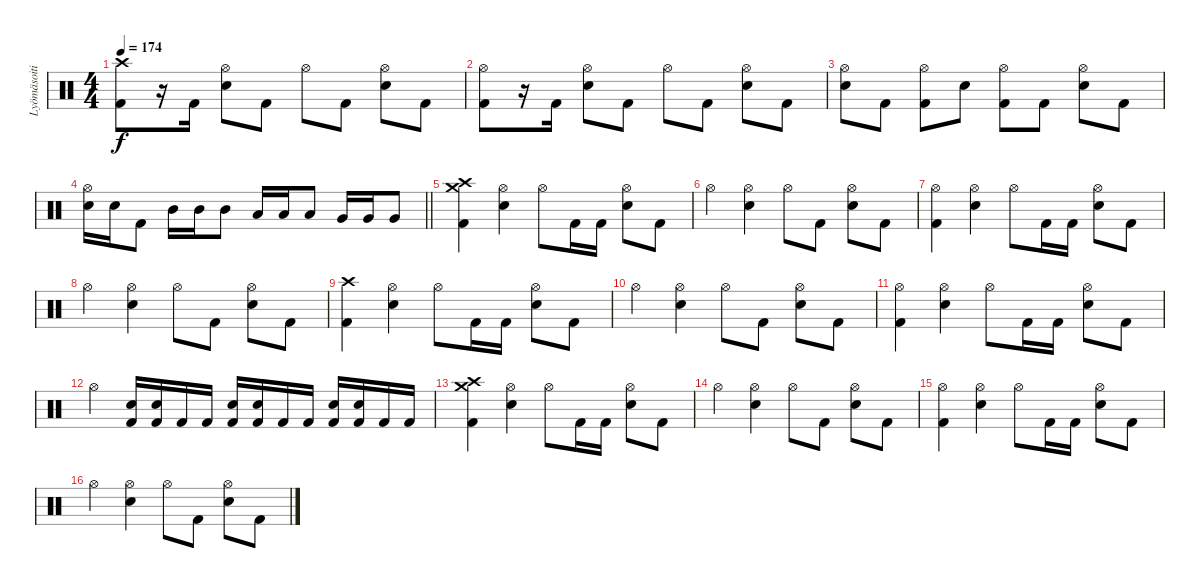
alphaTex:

\track ("Lyömäsoitin" "Lyömäsoiti") {instrument percussion}
\staff {score}
\articulation defaults
\ts (4 4)
\tempo 174
\clef neutral
\ks c
("Crash high (hit)" "Kick (hit) 2").8{dy f} r.16 "Kick (hit) 2".16 ("Hi-Hat (open)" "Electric Snare (hit)").8 "Kick (hit) 2".8 "Hi-Hat (open)".8 "Kick (hit) 2".8 ("Hi-Hat (open)" "Electric Snare (hit)").8 "Kick (hit) 2".8 |
("Hi-Hat (open)" "Kick (hit) 2").8 r.16 "Kick (hit) 2".16 ("Hi-Hat (open)" "Electric Snare (hit)").8 "Kick (hit) 2".8 "Hi-Hat (open)".8 "Kick (hit) 2".8 ("Hi-Hat (open)" "Electric Snare (hit)").8 "Kick (hit) 2".8 |
("Hi-Hat (open)" "Electric Snare (hit)").8 "Kick (hit) 2".8 ("Hi-Hat (open)" "Kick (hit) 2").8 "Electric Snare (hit)".8 ("Hi-Hat (open)" "Kick (hit) 2").8 "Kick (hit) 2".8 ("Hi-Hat (open)" "Electric Snare (hit)").8 "Kick (hit) 2".8 |
\barLineRight lightlight
("Hi-Hat (open)" "Electric Snare (hit)").16 "Electric Snare (hit)".16 "Kick (hit) 2".8 "Mid Tom (hit)".16 "Mid Tom (hit)".16 "Mid Tom (hit)".8 "Low Tom (hit)".16 "Low Tom (hit)".16 "Low Tom (hit)".8 "Very Low Tom (hit)".16 "Very Low Tom (hit)".16 "Very Low Tom (hit)".8 |
\section ("" "")
("Crash medium (hit)" "Crash high (hit)" "Kick (hit) 2").4 ("Hi-Hat (open)" "Electric Snare (hit)").4 "Hi-Hat (open)".8 "Kick (hit) 2".16 "Kick (hit) 2".16 ("Hi-Hat (open)" "Electric Snare (hit)").8 "Kick (hit) 2".8 |
"Hi-Hat (open)".4 ("Hi-Hat (open)" "Electric Snare (hit)").4 "Hi-Hat (open)".8 "Kick (hit) 2".8 ("Hi-Hat (open)" "Electric Snare (hit)").8 "Kick (hit) 2".8 |
("Hi-Hat (open)" "Kick (hit) 2").4 ("Hi-Hat (open)" "Electric Snare (hit)").4 "Hi-Hat (open)".8 "Kick (hit) 2".16 "Kick (hit) 2".16 ("Hi-Hat (open)" "Electric Snare (hit)").8 "Kick (hit) 2".8 |
"Hi-Hat (open)".4 ("Hi-Hat (open)" "Electric Snare (hit)").4 "Hi-Hat (open)".8 "Kick (hit) 2".8 ("Hi-Hat (open)" "Electric Snare (hit)").8 "Kick (hit) 2".8 |
("Crash high (hit)" "Kick (hit) 2").4 ("Hi-Hat (open)" "Electric Snare (hit)").4 "Hi-Hat (open)".8 "Kick (hit) 2".16 "Kick (hit) 2".16 ("Hi-Hat (open)" "Electric Snare (hit)").8 "Kick (hit) 2".8 |
"Hi-Hat (open)".4 ("Hi-Hat (open)" "Electric Snare (hit)").4 "Hi-Hat (open)".8 "Kick (hit) 2".8 ("Hi-Hat (open)" "Electric Snare (hit)").8 "Kick (hit) 2".8 |
("Hi-Hat (open)" "Kick (hit) 2").4 ("Hi-Hat (open)" "Electric Snare (hit)").4 "Hi-Hat (open)".8 "Kick (hit) 2".16 "Kick (hit) 2".16 ("Hi-Hat (open)" "Electric Snare (hit)").8 "Kick (hit) 2".8 |
"Hi-Hat (open)".4 ("Electric Snare (hit)" "Kick (hit) 2").16 ("Electric Snare (hit)" "Kick (hit) 2").16 "Kick (hit) 2".16 "Kick (hit) 2".16 ("Electric Snare (hit)" "Kick (hit) 2").16 ("Electric Snare (hit)" "Kick (hit) 2").16 "Kick (hit) 2".16 "Kick (hit) 2".16 ("Electric Snare (hit)" "Kick (hit) 2").16 ("Electric Snare (hit)" "Kick (hit) 2").16 "Kick (hit) 2".16 "Kick (hit) 2".16 |
("Crash medium (hit)" "Crash high (hit)" "Kick (hit) 2").4 ("Hi-Hat (open)" "Electric Snare (hit)").4 "Hi-Hat (open)".8 "Kick (hit) 2".16 "Kick (hit) 2".16 ("Hi-Hat (open)" "Electric Snare (hit)").8 "Kick (hit) 2".8 |
"Hi-Hat (open)".4 ("Hi-Hat (open)" "Electric Snare (hit)").4 "Hi-Hat (open)".8 "Kick (hit) 2".8 ("Hi-Hat (open)" "Electric Snare (hit)").8 "Kick (hit) 2".8 |
("Hi-Hat (open)" "Kick (hit) 2").4 ("Hi-Hat (open)" "Electric Snare (hit)").4 "Hi-Hat (open)".8 "Kick (hit) 2".16 "Kick (hit) 2".16 ("Hi-Hat (open)" "Electric Snare (hit)").8 "Kick (hit) 2".8 |
"Hi-Hat (open)".4 ("Hi-Hat (open)" "Electric Snare (hit)").4 "Hi-Hat (open)".8 "Kick (hit) 2".8 ("Hi-Hat (open)" "Electric Snare (hit)").8 "Kick (hit) 2".8
